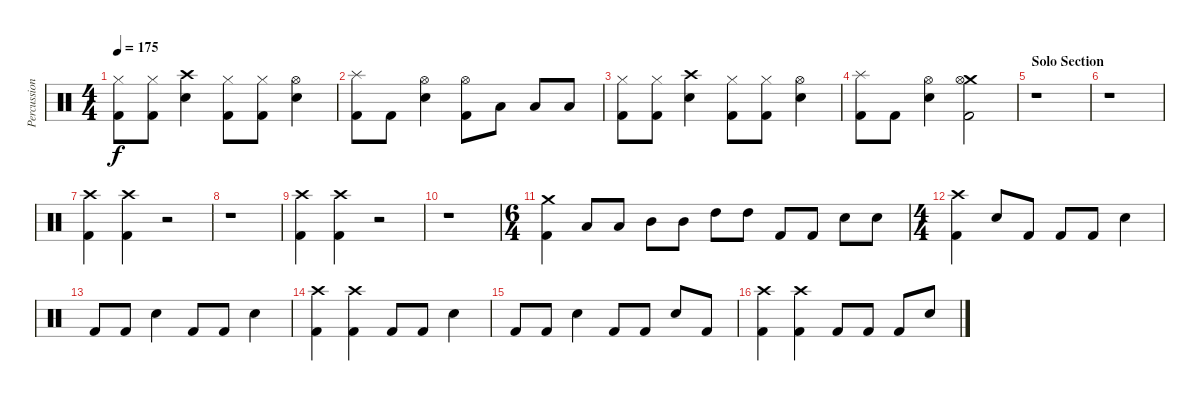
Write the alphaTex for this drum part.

\track ("Percussion" "Percussion") {instrument percussion}
\staff {score}
\articulation defaults
\ts (4 4)
\tempo 175
\clef neutral
\ks c
("Hi-Hat (closed)" "Kick (hit) 2").8{dy f} ("Hi-Hat (closed)" "Kick (hit) 2").8 ("Crash high (hit)" "Snare (hit) 2").4 ("Hi-Hat (closed)" "Kick (hit) 2").8 ("Hi-Hat (closed)" "Kick (hit) 2").8 ("Hi-Hat (open)" "Snare (hit) 2").4 |
("Splash (hit)" "Kick (hit) 2").8 "Kick (hit) 2".8 ("Hi-Hat (open)" "Snare (hit) 2").4 ("Hi-Hat (open)" "Kick (hit) 2").8 "Low Tom (hit)".8 "Low Tom (hit)".8 "Low Tom (hit)".8 |
("Hi-Hat (closed)" "Kick (hit) 2").8 ("Hi-Hat (closed)" "Kick (hit) 2").8 ("Crash high (hit)" "Snare (hit) 2").4 ("Hi-Hat (closed)" "Kick (hit) 2").8 ("Hi-Hat (closed)" "Kick (hit) 2").8 ("Hi-Hat (open)" "Snare (hit) 2").4 |
("Splash (hit)" "Kick (hit) 2").8 "Kick (hit) 2".8 ("Hi-Hat (open)" "Snare (hit) 2").4 ("Crash medium (hit)" "Hi-Hat (open)" "Kick (hit) 2").2 |
\section ("" "Solo Section")
r.1 |
r.1 |
("Crash high (hit)" "Kick (hit) 2").4 ("Crash high (hit)" "Kick (hit) 2").4 r.2 |
r.1 |
("Crash high (hit)" "Kick (hit) 2").4 ("Crash high (hit)" "Kick (hit) 2").4 r.2 |
r.1 |
\ts (6 4)
("Crash medium (hit)" "Kick (hit) 2").4 "Low Tom (hit)".8 "Low Tom (hit)".8 "Mid Tom (hit)".8 "Mid Tom (hit)".8 "High Tom (hit)".8 "High Tom (hit)".8 "Kick (hit) 2".8 "Kick (hit) 2".8 "Snare (hit) 2".8 "Snare (hit) 2".8 |
\ts (4 4)
("Crash high (hit)" "Kick (hit) 2").4 "Snare (hit) 2".8 "Kick (hit) 2".8 "Kick (hit) 2".8 "Kick (hit) 2".8 "Snare (hit) 2".4 |
"Kick (hit) 2".8 "Kick (hit) 2".8 "Snare (hit) 2".4 "Kick (hit) 2".8 "Kick (hit) 2".8 "Snare (hit) 2".4 |
("Crash high (hit)" "Kick (hit) 2").4 ("Crash high (hit)" "Kick (hit) 2").4 "Kick (hit) 2".8 "Kick (hit) 2".8 "Snare (hit) 2".4 |
"Kick (hit) 2".8 "Kick (hit) 2".8 "Snare (hit) 2".4 "Kick (hit) 2".8 "Kick (hit) 2".8 "Snare (hit) 2".8 "Kick (hit) 2".8 |
("Crash high (hit)" "Kick (hit) 2").4 ("Crash high (hit)" "Kick (hit) 2").4 "Kick (hit) 2".8 "Kick (hit) 2".8 "Kick (hit) 2".8 "Snare (hit) 2".8
